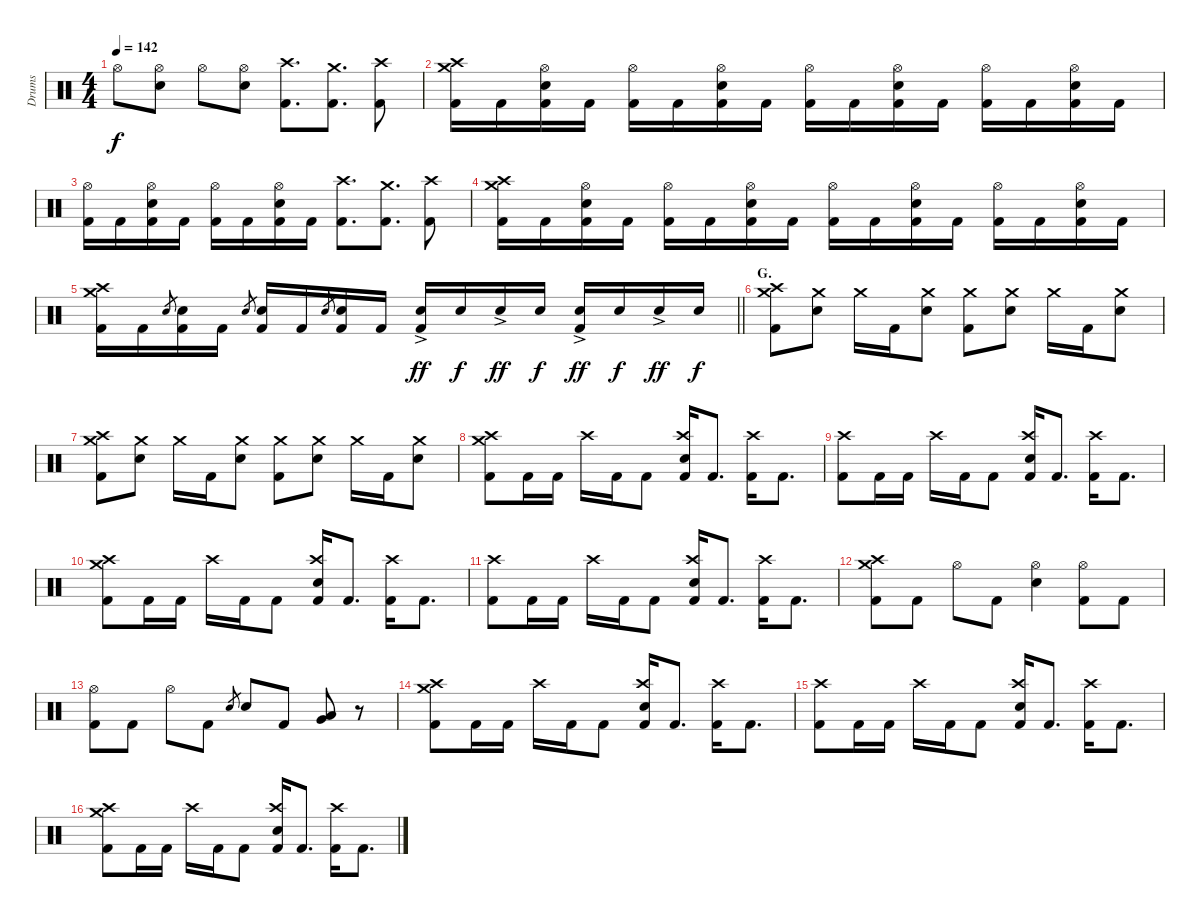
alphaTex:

\track ("Drums" "Drums") {instrument percussion}
\staff {score}
\articulation defaults
\ts (4 4)
\tempo 142
\clef neutral
\ks c "Hi-Hat (open)".8{dy f}
("Hi-Hat (open)" "Electric Snare (hit)").8 "Hi-Hat (open)".8 ("Hi-Hat (open)" "Electric Snare (hit)").8 ("Crash high (hit)" "Kick (hit) 2").8{d} ("Crash medium (hit)" "Kick (hit) 2").8{d} ("Crash high (hit)" "Kick (hit) 2").8 |
("Crash medium (hit)" "Crash high (hit)" "Kick (hit) 2").16 "Kick (hit) 2".16 ("Hi-Hat (open)" "Electric Snare (hit)" "Kick (hit) 2").16 "Kick (hit) 2".16 ("Hi-Hat (open)" "Kick (hit) 2").16 "Kick (hit) 2".16 ("Hi-Hat (open)" "Electric Snare (hit)" "Kick (hit) 2").16 "Kick (hit) 2".16 ("Hi-Hat (open)" "Kick (hit) 2").16 "Kick (hit) 2".16 ("Hi-Hat (open)" "Electric Snare (hit)" "Kick (hit) 2").16 "Kick (hit) 2".16 ("Hi-Hat (open)" "Kick (hit) 2").16 "Kick (hit) 2".16 ("Hi-Hat (open)" "Electric Snare (hit)" "Kick (hit) 2").16 "Kick (hit) 2".16 |
("Hi-Hat (open)" "Kick (hit) 2").16 "Kick (hit) 2".16 ("Hi-Hat (open)" "Electric Snare (hit)" "Kick (hit) 2").16 "Kick (hit) 2".16 ("Hi-Hat (open)" "Kick (hit) 2").16 "Kick (hit) 2".16 ("Hi-Hat (open)" "Electric Snare (hit)" "Kick (hit) 2").16 "Kick (hit) 2".16 ("Crash high (hit)" "Kick (hit) 2").8{d} ("Crash medium (hit)" "Kick (hit) 2").8{d} ("Crash high (hit)" "Kick (hit) 2").8 |
("Crash medium (hit)" "Crash high (hit)" "Kick (hit) 2").16 "Kick (hit) 2".16 ("Hi-Hat (open)" "Electric Snare (hit)" "Kick (hit) 2").16 "Kick (hit) 2".16 ("Hi-Hat (open)" "Kick (hit) 2").16 "Kick (hit) 2".16 ("Hi-Hat (open)" "Electric Snare (hit)" "Kick (hit) 2").16 "Kick (hit) 2".16 ("Hi-Hat (open)" "Kick (hit) 2").16 "Kick (hit) 2".16 ("Hi-Hat (open)" "Electric Snare (hit)" "Kick (hit) 2").16 "Kick (hit) 2".16 ("Hi-Hat (open)" "Kick (hit) 2").16 "Kick (hit) 2".16 ("Hi-Hat (open)" "Electric Snare (hit)" "Kick (hit) 2").16 "Kick (hit) 2".16 |
\barLineRight lightlight
("Crash medium (hit)" "Crash high (hit)" "Kick (hit) 2").16 "Kick (hit) 2".16 "Electric Snare (hit)".8{gr} ("Electric Snare (hit)" "Kick (hit) 2").16 "Kick (hit) 2".16 "Electric Snare (hit)".8{gr} ("Electric Snare (hit)" "Kick (hit) 2").16 "Kick (hit) 2".16 "Electric Snare (hit)".8{gr} ("Electric Snare (hit)" "Kick (hit) 2").16 "Kick (hit) 2".16 ("Electric Snare (hit)"{ac} "Kick (hit) 2").16{dy ff} "Electric Snare (hit)".16{dy f} "Electric Snare (hit)"{ac}.16{dy ff} "Electric Snare (hit)".16{dy f} ("Electric Snare (hit)"{ac} "Kick (hit) 2").16{dy ff} "Electric Snare (hit)".16{dy f} "Electric Snare (hit)"{ac}.16{dy ff} "Electric Snare (hit)".16{dy f} |
\section ("" "G.")
("Crash medium (hit)" "Crash high (hit)" "Kick (hit) 2").8 ("Crash medium (hit)" "Electric Snare (hit)").8 "Crash medium (hit)".16 "Kick (hit) 2".16 ("Crash medium (hit)" "Electric Snare (hit)").8 ("Crash medium (hit)" "Kick (hit) 2").8 ("Crash medium (hit)" "Electric Snare (hit)").8 "Crash medium (hit)".16 "Kick (hit) 2".16 ("Crash medium (hit)" "Electric Snare (hit)").8 |
("Crash medium (hit)" "Crash high (hit)" "Kick (hit) 2").8 ("Crash medium (hit)" "Electric Snare (hit)").8 "Crash medium (hit)".16 "Kick (hit) 2".16 ("Crash medium (hit)" "Electric Snare (hit)").8 ("Crash medium (hit)" "Kick (hit) 2").8 ("Crash medium (hit)" "Electric Snare (hit)").8 "Crash medium (hit)".16 "Kick (hit) 2".16 ("Crash medium (hit)" "Electric Snare (hit)").8 |
("Crash medium (hit)" "Crash high (hit)" "Kick (hit) 2").8 "Kick (hit) 2".16 "Kick (hit) 2".16 "Crash high (hit)".16 "Kick (hit) 2".16 "Kick (hit) 2".8 ("Crash high (hit)" "Electric Snare (hit)" "Kick (hit) 2").16 "Kick (hit) 2".8{d} ("Crash high (hit)" "Kick (hit) 2").16 "Kick (hit) 2".8{d} |
("Crash high (hit)" "Kick (hit) 2").8 "Kick (hit) 2".16 "Kick (hit) 2".16 "Crash high (hit)".16 "Kick (hit) 2".16 "Kick (hit) 2".8 ("Crash high (hit)" "Electric Snare (hit)" "Kick (hit) 2").16 "Kick (hit) 2".8{d} ("Crash high (hit)" "Kick (hit) 2").16 "Kick (hit) 2".8{d} |
("Crash medium (hit)" "Crash high (hit)" "Kick (hit) 2").8 "Kick (hit) 2".16 "Kick (hit) 2".16 "Crash high (hit)".16 "Kick (hit) 2".16 "Kick (hit) 2".8 ("Crash high (hit)" "Electric Snare (hit)" "Kick (hit) 2").16 "Kick (hit) 2".8{d} ("Crash high (hit)" "Kick (hit) 2").16 "Kick (hit) 2".8{d} |
("Crash high (hit)" "Kick (hit) 2").8 "Kick (hit) 2".16 "Kick (hit) 2".16 "Crash high (hit)".16 "Kick (hit) 2".16 "Kick (hit) 2".8 ("Crash high (hit)" "Electric Snare (hit)" "Kick (hit) 2").16 "Kick (hit) 2".8{d} ("Crash high (hit)" "Kick (hit) 2").16 "Kick (hit) 2".8{d} |
("Crash medium (hit)" "Crash high (hit)" "Kick (hit) 2").8 "Kick (hit) 2".8 "Hi-Hat (open)".8 "Kick (hit) 2".8 ("Hi-Hat (open)" "Electric Snare (hit)").4 ("Hi-Hat (open)" "Kick (hit) 2").8 "Kick (hit) 2".8 |
("Hi-Hat (open)" "Kick (hit) 2").8 "Kick (hit) 2".8 "Hi-Hat (open)".8 "Kick (hit) 2".8 "Electric Snare (hit)".8{gr} "Electric Snare (hit)".8 "Kick (hit) 2".8 ("Very Low Tom (hit)" "Low Floor Tom (hit)").8{bu 120} r.8 |
("Crash medium (hit)" "Crash high (hit)" "Kick (hit) 2").8 "Kick (hit) 2".16 "Kick (hit) 2".16 "Crash high (hit)".16 "Kick (hit) 2".16 "Kick (hit) 2".8 ("Crash high (hit)" "Electric Snare (hit)" "Kick (hit) 2").16 "Kick (hit) 2".8{d} ("Crash high (hit)" "Kick (hit) 2").16 "Kick (hit) 2".8{d} |
("Crash high (hit)" "Kick (hit) 2").8 "Kick (hit) 2".16 "Kick (hit) 2".16 "Crash high (hit)".16 "Kick (hit) 2".16 "Kick (hit) 2".8 ("Crash high (hit)" "Electric Snare (hit)" "Kick (hit) 2").16 "Kick (hit) 2".8{d} ("Crash high (hit)" "Kick (hit) 2").16 "Kick (hit) 2".8{d} |
("Crash medium (hit)" "Crash high (hit)" "Kick (hit) 2").8 "Kick (hit) 2".16 "Kick (hit) 2".16 "Crash high (hit)".16 "Kick (hit) 2".16 "Kick (hit) 2".8 ("Crash high (hit)" "Electric Snare (hit)" "Kick (hit) 2").16 "Kick (hit) 2".8{d} ("Crash high (hit)" "Kick (hit) 2").16 "Kick (hit) 2".8{d}
